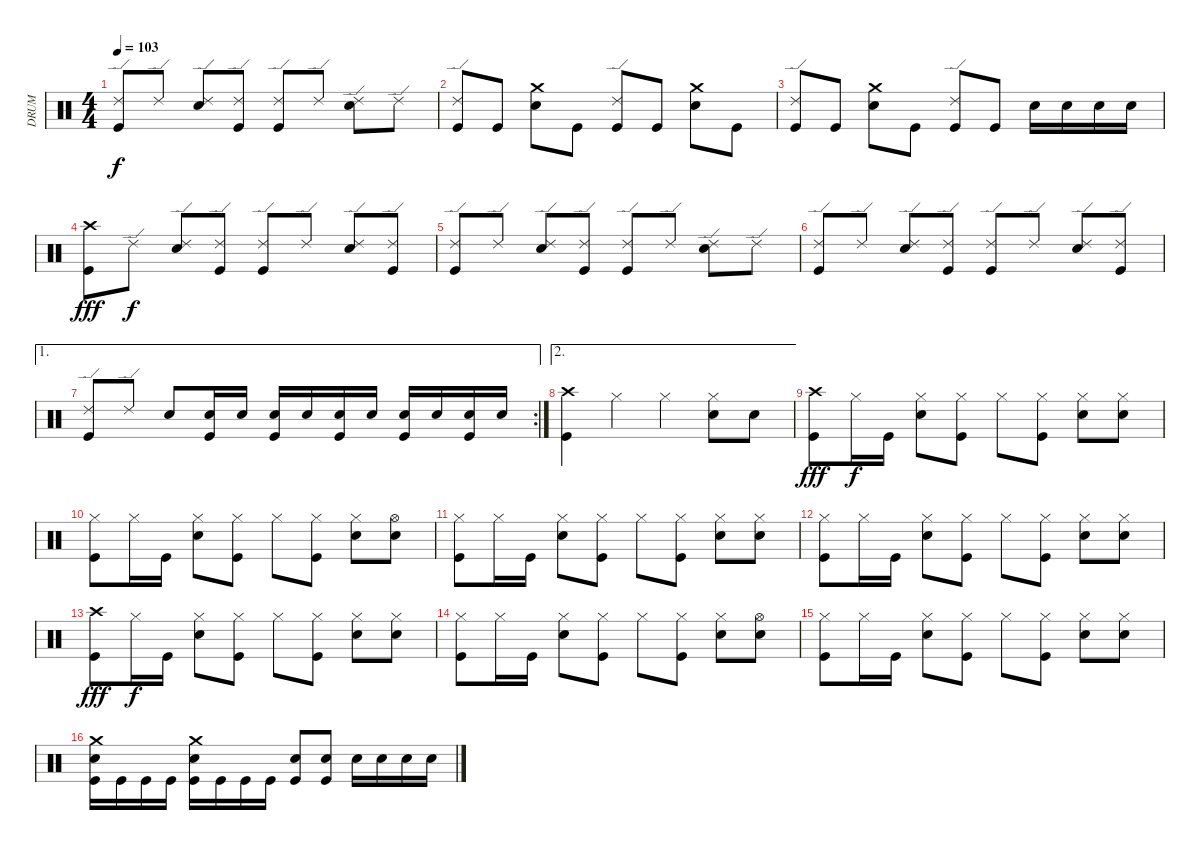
\track ("DRUM" "DRUM") {instrument percussion}
\staff {score}
\articulation defaults
\ts (4 4)
\tempo 103
\clef neutral
\ks c
("Ride (edge) 2" "Kick (hit)").8{dy f} "Ride (edge) 2".8 ("Ride (edge) 2" "Snare (hit) 2").8 ("Ride (edge) 2" "Kick (hit)").8 ("Ride (edge) 2" "Kick (hit)").8 "Ride (edge) 2".8 ("Ride (edge) 2" "Snare (hit) 2").8 "Ride (edge) 2".8 |
("Ride (edge) 2" "Kick (hit)").8 "Kick (hit)".8 ("Crash medium (hit)" "Snare (hit) 2").8 "Kick (hit)".8 ("Ride (edge) 2" "Kick (hit)").8 "Kick (hit)".8 ("Crash medium (hit)" "Snare (hit) 2").8 "Kick (hit)".8 |
("Ride (edge) 2" "Kick (hit)").8 "Kick (hit)".8 ("Crash medium (hit)" "Snare (hit) 2").8 "Kick (hit)".8 ("Ride (edge) 2" "Kick (hit)").8 "Kick (hit)".8 "Snare (hit) 2".16 "Snare (hit) 2".16 "Snare (hit) 2".16 "Snare (hit) 2".16 |
("Crash high (hit)" "Kick (hit)").8{dy fff} "Ride (edge) 2".8{dy f} ("Ride (edge) 2" "Snare (hit) 2").8 ("Ride (edge) 2" "Kick (hit)").8 ("Ride (edge) 2" "Kick (hit)").8 "Ride (edge) 2".8 ("Ride (edge) 2" "Snare (hit) 2").8 ("Ride (edge) 2" "Kick (hit)").8 |
("Ride (edge) 2" "Kick (hit)").8 "Ride (edge) 2".8 ("Ride (edge) 2" "Snare (hit) 2").8 ("Ride (edge) 2" "Kick (hit)").8 ("Ride (edge) 2" "Kick (hit)").8 "Ride (edge) 2".8 ("Ride (edge) 2" "Snare (hit) 2").8 "Ride (edge) 2".8 |
("Ride (edge) 2" "Kick (hit)").8 "Ride (edge) 2".8 ("Ride (edge) 2" "Snare (hit) 2").8 ("Ride (edge) 2" "Kick (hit)").8 ("Ride (edge) 2" "Kick (hit)").8 "Ride (edge) 2".8 ("Ride (edge) 2" "Snare (hit) 2").8 ("Ride (edge) 2" "Kick (hit)").8 |
\ae 1
\rc 2
("Ride (edge) 2" "Kick (hit)").8 "Ride (edge) 2".8 "Snare (hit) 2".8 ("Snare (hit) 2" "Kick (hit)").16 "Snare (hit) 2".16 ("Snare (hit) 2" "Kick (hit)").16 "Snare (hit) 2".16 ("Snare (hit) 2" "Kick (hit)").16 "Snare (hit) 2".16 ("Snare (hit) 2" "Kick (hit)").16 "Snare (hit) 2".16 ("Snare (hit) 2" "Kick (hit)").16 "Snare (hit) 2".16 |
\ae 2
("Crash high (hit)" "Kick (hit)").4 "Hi-Hat (closed)".4 "Hi-Hat (closed)".4 ("Snare (hit) 2" "Hi-Hat (closed)").8 "Snare (hit) 2".8 |
("Crash high (hit)" "Kick (hit)").8{dy fff} "Hi-Hat (closed)".16{dy f} "Kick (hit)".16 ("Snare (hit) 2" "Hi-Hat (closed)").8 ("Hi-Hat (closed)" "Kick (hit)").8 "Hi-Hat (closed)".8 ("Hi-Hat (closed)" "Kick (hit)").8 ("Snare (hit) 2" "Hi-Hat (closed)").8 ("Snare (hit) 2" "Hi-Hat (closed)").8 |
("Hi-Hat (closed)" "Kick (hit)").8 "Hi-Hat (closed)".16 "Kick (hit)".16 ("Snare (hit) 2" "Hi-Hat (closed)").8 ("Hi-Hat (closed)" "Kick (hit)").8 "Hi-Hat (closed)".8 ("Hi-Hat (closed)" "Kick (hit)").8 ("Snare (hit) 2" "Hi-Hat (closed)").8 ("Snare (hit) 2" "Hi-Hat (open)").8 |
("Hi-Hat (closed)" "Kick (hit)").8 "Hi-Hat (closed)".16 "Kick (hit)".16 ("Snare (hit) 2" "Hi-Hat (closed)").8 ("Hi-Hat (closed)" "Kick (hit)").8 "Hi-Hat (closed)".8 ("Hi-Hat (closed)" "Kick (hit)").8 ("Snare (hit) 2" "Hi-Hat (closed)").8 ("Snare (hit) 2" "Hi-Hat (closed)").8 |
("Hi-Hat (closed)" "Kick (hit)").8 "Hi-Hat (closed)".16 "Kick (hit)".16 ("Snare (hit) 2" "Hi-Hat (closed)").8 ("Hi-Hat (closed)" "Kick (hit)").8 "Hi-Hat (closed)".8 ("Hi-Hat (closed)" "Kick (hit)").8 ("Snare (hit) 2" "Hi-Hat (closed)").8 ("Snare (hit) 2" "Hi-Hat (closed)").8 |
("Crash high (hit)" "Kick (hit)").8{dy fff} "Hi-Hat (closed)".16{dy f} "Kick (hit)".16 ("Snare (hit) 2" "Hi-Hat (closed)").8 ("Hi-Hat (closed)" "Kick (hit)").8 "Hi-Hat (closed)".8 ("Hi-Hat (closed)" "Kick (hit)").8 ("Snare (hit) 2" "Hi-Hat (closed)").8 ("Snare (hit) 2" "Hi-Hat (closed)").8 |
("Hi-Hat (closed)" "Kick (hit)").8 "Hi-Hat (closed)".16 "Kick (hit)".16 ("Snare (hit) 2" "Hi-Hat (closed)").8 ("Hi-Hat (closed)" "Kick (hit)").8 "Hi-Hat (closed)".8 ("Hi-Hat (closed)" "Kick (hit)").8 ("Snare (hit) 2" "Hi-Hat (closed)").8 ("Snare (hit) 2" "Hi-Hat (open)").8 |
("Hi-Hat (closed)" "Kick (hit)").8 "Hi-Hat (closed)".16 "Kick (hit)".16 ("Snare (hit) 2" "Hi-Hat (closed)").8 ("Hi-Hat (closed)" "Kick (hit)").8 "Hi-Hat (closed)".8 ("Hi-Hat (closed)" "Kick (hit)").8 ("Snare (hit) 2" "Hi-Hat (closed)").8 ("Snare (hit) 2" "Hi-Hat (closed)").8 |
("Crash medium (hit)" "Snare (hit) 2" "Kick (hit)").16 "Kick (hit)".16 "Kick (hit)".16 "Kick (hit)".16 ("Crash medium (hit)" "Snare (hit) 2" "Kick (hit)").16 "Kick (hit)".16 "Kick (hit)".16 "Kick (hit)".16 ("Snare (hit) 2" "Kick (hit)").8 ("Snare (hit) 2" "Kick (hit)").8 "Snare (hit) 2".16 "Snare (hit) 2".16 "Snare (hit) 2".16 "Snare (hit) 2".16
